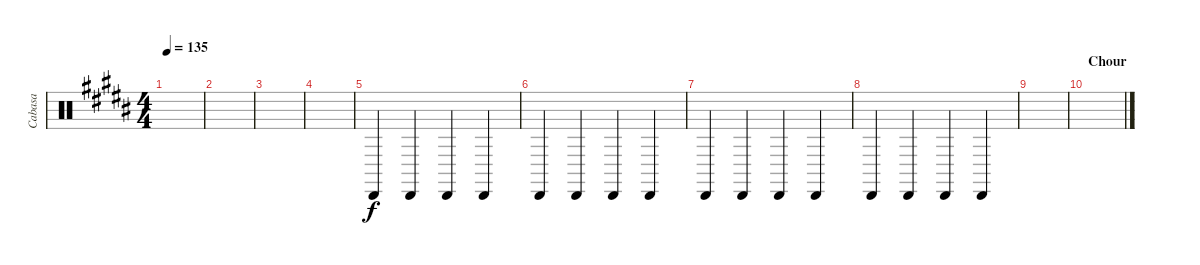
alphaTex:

\track ("Cabasa" "Cabasa") {instrument percussion}
\staff {score}
\articulation defaults
\ts (4 4)
\tempo 135
\clef neutral
\ks b
|
|
|
|
"Cabasa (hit)".4 "Cabasa (hit)".4 "Cabasa (hit)".4 "Cabasa (hit)".4 |
"Cabasa (hit)".4 "Cabasa (hit)".4 "Cabasa (hit)".4 "Cabasa (hit)".4 |
"Cabasa (hit)".4 "Cabasa (hit)".4 "Cabasa (hit)".4 "Cabasa (hit)".4 |
"Cabasa (hit)".4 "Cabasa (hit)".4 "Cabasa (hit)".4 "Cabasa (hit)".4 |
|
\section ("" "Chour")
